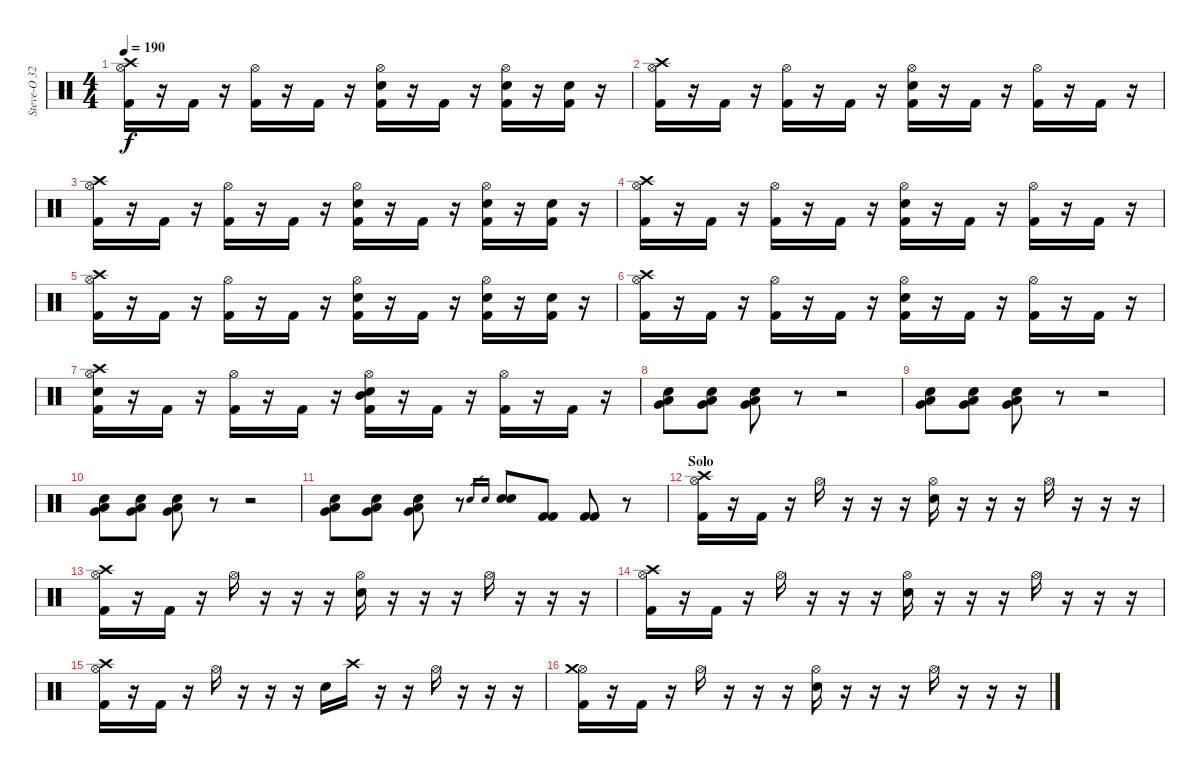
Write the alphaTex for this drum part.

\track ("Steve-O 32 ( Drums )" "Steve-O 32") {instrument percussion}
\staff {score}
\articulation defaults
\ts (4 4)
\tempo 190
\clef neutral
\ks c
("Hi-Hat (open)" "Crash high (hit)" "Kick (hit) 2").16{dy f} r.16 "Kick (hit) 2".16 r.16 ("Hi-Hat (open)" "Kick (hit) 2").16 r.16 "Kick (hit) 2".16 r.16 ("Hi-Hat (open)" "Snare (hit) 2" "Kick (hit) 2").16 r.16 "Kick (hit) 2".16 r.16 ("Hi-Hat (open)" "Snare (hit) 2" "Kick (hit) 2").16 r.16 ("Snare (hit) 2" "Kick (hit) 2").16 r.16 |
("Hi-Hat (open)" "Crash high (hit)" "Kick (hit) 2").16 r.16 "Kick (hit) 2".16 r.16 ("Hi-Hat (open)" "Kick (hit) 2").16 r.16 "Kick (hit) 2".16 r.16 ("Hi-Hat (open)" "Snare (hit) 2" "Kick (hit) 2").16 r.16 "Kick (hit) 2".16 r.16 ("Hi-Hat (open)" "Kick (hit) 2").16 r.16 "Kick (hit) 2".16 r.16 |
("Hi-Hat (open)" "Crash high (hit)" "Kick (hit) 2").16 r.16 "Kick (hit) 2".16 r.16 ("Hi-Hat (open)" "Kick (hit) 2").16 r.16 "Kick (hit) 2".16 r.16 ("Hi-Hat (open)" "Snare (hit) 2" "Kick (hit) 2").16 r.16 "Kick (hit) 2".16 r.16 ("Hi-Hat (open)" "Snare (hit) 2" "Kick (hit) 2").16 r.16 ("Snare (hit) 2" "Kick (hit) 2").16 r.16 |
("Hi-Hat (open)" "Crash high (hit)" "Kick (hit) 2").16 r.16 "Kick (hit) 2".16 r.16 ("Hi-Hat (open)" "Kick (hit) 2").16 r.16 "Kick (hit) 2".16 r.16 ("Hi-Hat (open)" "Snare (hit) 2" "Kick (hit) 2").16 r.16 "Kick (hit) 2".16 r.16 ("Hi-Hat (open)" "Kick (hit) 2").16 r.16 "Kick (hit) 2".16 r.16 |
("Hi-Hat (open)" "Crash high (hit)" "Kick (hit) 2").16 r.16 "Kick (hit) 2".16 r.16 ("Hi-Hat (open)" "Kick (hit) 2").16 r.16 "Kick (hit) 2".16 r.16 ("Hi-Hat (open)" "Snare (hit) 2" "Kick (hit) 2").16 r.16 "Kick (hit) 2".16 r.16 ("Hi-Hat (open)" "Snare (hit) 2" "Kick (hit) 2").16 r.16 ("Snare (hit) 2" "Kick (hit) 2").16 r.16 |
("Hi-Hat (open)" "Crash high (hit)" "Kick (hit) 2").16 r.16 "Kick (hit) 2".16 r.16 ("Hi-Hat (open)" "Kick (hit) 2").16 r.16 "Kick (hit) 2".16 r.16 ("Hi-Hat (open)" "Snare (hit) 2" "Kick (hit) 2").16 r.16 "Kick (hit) 2".16 r.16 ("Hi-Hat (open)" "Kick (hit) 2").16 r.16 "Kick (hit) 2".16 r.16 |
("Hi-Hat (open)" "Crash high (hit)" "Snare (hit) 2" "Kick (hit) 2").16 r.16 "Kick (hit) 2".16 r.16 ("Hi-Hat (open)" "Kick (hit) 2").16 r.16 "Kick (hit) 2".16 r.16 ("Hi-Hat (open)" "Mid Tom (hit)" "Snare (hit) 2" "Kick (hit) 2").16 r.16 "Kick (hit) 2".16 r.16 ("Hi-Hat (open)" "Kick (hit) 2").16 r.16 "Kick (hit) 2".16 r.16 |
("Very Low Tom (hit)" "Low Floor Tom (hit)" "Snare (hit) 2").8 ("Very Low Tom (hit)" "Low Floor Tom (hit)" "Snare (hit) 2").8 ("Very Low Tom (hit)" "Low Floor Tom (hit)" "Snare (hit) 2").8 r.8 r.2 |
("Very Low Tom (hit)" "Low Floor Tom (hit)" "Snare (hit) 2").8 ("Very Low Tom (hit)" "Low Floor Tom (hit)" "Snare (hit) 2").8 ("Very Low Tom (hit)" "Low Floor Tom (hit)" "Snare (hit) 2").8 r.8 r.2 |
("Very Low Tom (hit)" "Low Floor Tom (hit)" "Snare (hit) 2").8 ("Very Low Tom (hit)" "Low Floor Tom (hit)" "Snare (hit) 2").8 ("Very Low Tom (hit)" "Low Floor Tom (hit)" "Snare (hit) 2").8 r.8 r.2 |
("Very Low Tom (hit)" "Low Floor Tom (hit)" "Snare (hit) 2").8 ("Very Low Tom (hit)" "Low Floor Tom (hit)" "Snare (hit) 2").8 ("Very Low Tom (hit)" "Low Floor Tom (hit)" "Snare (hit) 2").8 r.8 "Snare (hit) 2".16{gr} "Snare (hit) 2".16{gr} ("Snare (hit) 2" "Snare (hit) 2").8 ("Kick (hit) 2" "Kick (hit) 2").8 ("Kick (hit) 2" "Kick (hit) 2").8 r.8 |
\section ("" "Solo")
("Hi-Hat (open)" "Crash high (hit)" "Kick (hit) 2").16 r.16 "Kick (hit) 2".16 r.16 "Hi-Hat (open)".16 r.16 r.16 r.16 ("Hi-Hat (open)" "Snare (hit) 2").16 r.16 r.16 r.16 "Hi-Hat (open)".16 r.16 r.16 r.16 |
("Hi-Hat (open)" "Crash high (hit)" "Kick (hit) 2").16 r.16 "Kick (hit) 2".16 r.16 "Hi-Hat (open)".16 r.16 r.16 r.16 ("Hi-Hat (open)" "Snare (hit) 2").16 r.16 r.16 r.16 "Hi-Hat (open)".16 r.16 r.16 r.16 |
("Hi-Hat (open)" "Crash high (hit)" "Kick (hit) 2").16 r.16 "Kick (hit) 2".16 r.16 "Hi-Hat (open)".16 r.16 r.16 r.16 ("Hi-Hat (open)" "Snare (hit) 2").16 r.16 r.16 r.16 "Hi-Hat (open)".16 r.16 r.16 r.16 |
("Hi-Hat (open)" "Crash high (hit)" "Kick (hit) 2").16 r.16 "Kick (hit) 2".16 r.16 "Hi-Hat (open)".16 r.16 r.16 r.16 "Snare (hit) 2".16 "Crash high (hit)".16 r.16 r.16 "Hi-Hat (open)".16 r.16 r.16 r.16 |
("Hi-Hat (open)" "Crash medium (hit)" "Kick (hit) 2").16 r.16 "Kick (hit) 2".16 r.16 "Hi-Hat (open)".16 r.16 r.16 r.16 ("Hi-Hat (open)" "Snare (hit) 2").16 r.16 r.16 r.16 "Hi-Hat (open)".16 r.16 r.16 r.16
